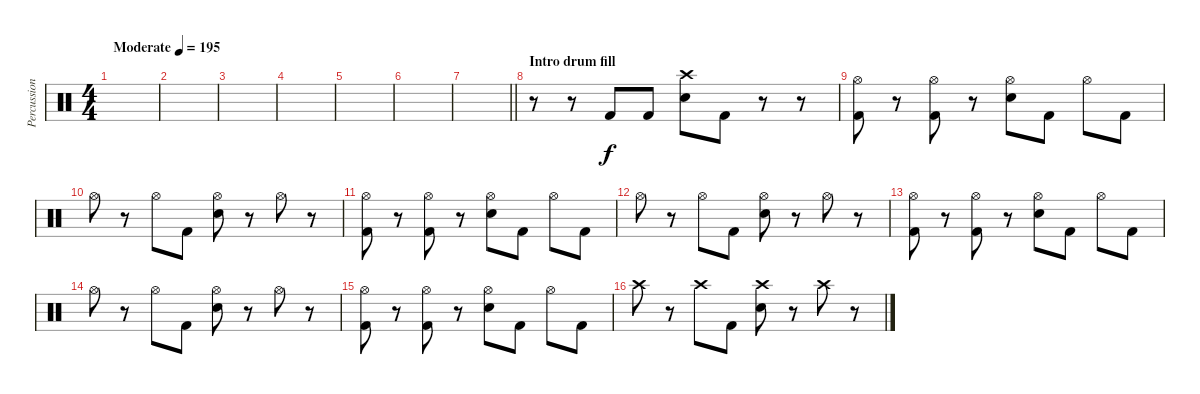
\track ("Percussion" "Percussion") {instrument percussion}
\staff {score}
\articulation defaults
\ts (4 4)
\tempo (195 "Moderate")
\clef neutral
\ks c
|
|
|
|
|
|
\barLineRight lightlight
|
\section ("" "Intro drum fill")
r.8 r.8 "Kick (hit) 2".8 "Kick (hit) 2".8 ("Crash high (hit)" "Electric Snare (hit)").8 "Kick (hit) 2".8 r.8 r.8 |
("Hi-Hat (open)" "Kick (hit) 2").8 r.8 ("Hi-Hat (open)" "Kick (hit) 2").8 r.8 ("Hi-Hat (open)" "Electric Snare (hit)").8 "Kick (hit) 2".8 "Hi-Hat (open)".8 "Kick (hit) 2".8 |
"Hi-Hat (open)".8 r.8 "Hi-Hat (open)".8 "Kick (hit) 2".8 ("Hi-Hat (open)" "Electric Snare (hit)").8 r.8 "Hi-Hat (open)".8 r.8 |
("Hi-Hat (open)" "Kick (hit) 2").8 r.8 ("Hi-Hat (open)" "Kick (hit) 2").8 r.8 ("Hi-Hat (open)" "Electric Snare (hit)").8 "Kick (hit) 2".8 "Hi-Hat (open)".8 "Kick (hit) 2".8 |
"Hi-Hat (open)".8 r.8 "Hi-Hat (open)".8 "Kick (hit) 2".8 ("Hi-Hat (open)" "Electric Snare (hit)").8 r.8 "Hi-Hat (open)".8 r.8 |
("Hi-Hat (open)" "Kick (hit) 2").8 r.8 ("Hi-Hat (open)" "Kick (hit) 2").8 r.8 ("Hi-Hat (open)" "Electric Snare (hit)").8 "Kick (hit) 2".8 "Hi-Hat (open)".8 "Kick (hit) 2".8 |
"Hi-Hat (open)".8 r.8 "Hi-Hat (open)".8 "Kick (hit) 2".8 ("Hi-Hat (open)" "Electric Snare (hit)").8 r.8 "Hi-Hat (open)".8 r.8 |
("Hi-Hat (open)" "Kick (hit) 2").8 r.8 ("Hi-Hat (open)" "Kick (hit) 2").8 r.8 ("Hi-Hat (open)" "Electric Snare (hit)").8 "Kick (hit) 2".8 "Hi-Hat (open)".8 "Kick (hit) 2".8 |
"Crash high (hit)".8 r.8 "Crash high (hit)".8 "Kick (hit) 2".8 ("Crash high (hit)" "Electric Snare (hit)").8 r.8 "Crash high (hit)".8 r.8
